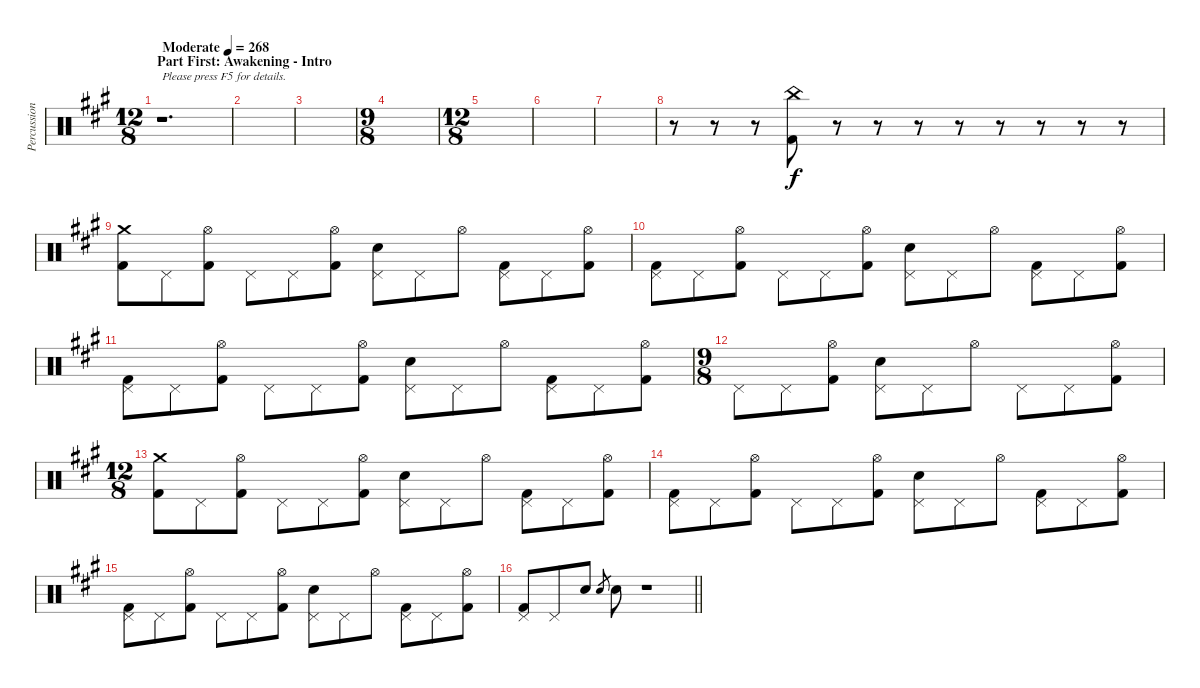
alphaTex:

\track ("Percussion" "Percussion") {instrument percussion}
\staff {score}
\articulation defaults
\ts (12 8)
\section ("" "Part First: Awakening - Intro")
\tempo (268 "Moderate")
\clef neutral
\ks a
r.1{d txt "Please press F5 for details." dy f} |
|
|
\ts (9 8)
|
\ts (12 8)
|
|
|
r.8 r.8 r.8 ("China (hit)" "Kick (hit) 2").8 r.8 r.8 r.8 r.8 r.8 r.8 r.8 r.8 |
("Crash medium (hit)" "Kick (hit) 2").8 "Pedal Hi-Hat (hit)".8 ("Hi-Hat (open)" "Kick (hit) 2").8 "Pedal Hi-Hat (hit)".8 "Pedal Hi-Hat (hit)".8 ("Hi-Hat (open)" "Kick (hit) 2").8 ("Pedal Hi-Hat (hit)" "Electric Snare (hit)").8 "Pedal Hi-Hat (hit)".8 "Hi-Hat (open)".8 ("Pedal Hi-Hat (hit)" "Kick (hit) 2").8 "Pedal Hi-Hat (hit)".8 ("Hi-Hat (open)" "Kick (hit) 2").8 |
("Pedal Hi-Hat (hit)" "Kick (hit) 2").8 "Pedal Hi-Hat (hit)".8 ("Hi-Hat (open)" "Kick (hit) 2").8 "Pedal Hi-Hat (hit)".8 "Pedal Hi-Hat (hit)".8 ("Hi-Hat (open)" "Kick (hit) 2").8 ("Pedal Hi-Hat (hit)" "Electric Snare (hit)").8 "Pedal Hi-Hat (hit)".8 "Hi-Hat (open)".8 ("Pedal Hi-Hat (hit)" "Kick (hit) 2").8 "Pedal Hi-Hat (hit)".8 ("Hi-Hat (open)" "Kick (hit) 2").8 |
("Pedal Hi-Hat (hit)" "Kick (hit) 2").8 "Pedal Hi-Hat (hit)".8 ("Hi-Hat (open)" "Kick (hit) 2").8 "Pedal Hi-Hat (hit)".8 "Pedal Hi-Hat (hit)".8 ("Hi-Hat (open)" "Kick (hit) 2").8 ("Pedal Hi-Hat (hit)" "Electric Snare (hit)").8 "Pedal Hi-Hat (hit)".8 "Hi-Hat (open)".8 ("Pedal Hi-Hat (hit)" "Kick (hit) 2").8 "Pedal Hi-Hat (hit)".8 ("Hi-Hat (open)" "Kick (hit) 2").8 |
\ts (9 8)
"Pedal Hi-Hat (hit)".8 "Pedal Hi-Hat (hit)".8 ("Hi-Hat (open)" "Kick (hit) 2").8 ("Pedal Hi-Hat (hit)" "Electric Snare (hit)").8 "Pedal Hi-Hat (hit)".8 "Hi-Hat (open)".8 "Pedal Hi-Hat (hit)".8 "Pedal Hi-Hat (hit)".8 ("Hi-Hat (open)" "Kick (hit) 2").8 |
\ts (12 8)
("Crash medium (hit)" "Kick (hit) 2").8 "Pedal Hi-Hat (hit)".8 ("Hi-Hat (open)" "Kick (hit) 2").8 "Pedal Hi-Hat (hit)".8 "Pedal Hi-Hat (hit)".8 ("Hi-Hat (open)" "Kick (hit) 2").8 ("Pedal Hi-Hat (hit)" "Electric Snare (hit)").8 "Pedal Hi-Hat (hit)".8 "Hi-Hat (open)".8 ("Pedal Hi-Hat (hit)" "Kick (hit) 2").8 "Pedal Hi-Hat (hit)".8 ("Hi-Hat (open)" "Kick (hit) 2").8 |
("Pedal Hi-Hat (hit)" "Kick (hit) 2").8 "Pedal Hi-Hat (hit)".8 ("Hi-Hat (open)" "Kick (hit) 2").8 "Pedal Hi-Hat (hit)".8 "Pedal Hi-Hat (hit)".8 ("Hi-Hat (open)" "Kick (hit) 2").8 ("Pedal Hi-Hat (hit)" "Electric Snare (hit)").8 "Pedal Hi-Hat (hit)".8 "Hi-Hat (open)".8 ("Pedal Hi-Hat (hit)" "Kick (hit) 2").8 "Pedal Hi-Hat (hit)".8 ("Hi-Hat (open)" "Kick (hit) 2").8 |
("Pedal Hi-Hat (hit)" "Kick (hit) 2").8 "Pedal Hi-Hat (hit)".8 ("Hi-Hat (open)" "Kick (hit) 2").8 "Pedal Hi-Hat (hit)".8 "Pedal Hi-Hat (hit)".8 ("Hi-Hat (open)" "Kick (hit) 2").8 ("Pedal Hi-Hat (hit)" "Electric Snare (hit)").8 "Pedal Hi-Hat (hit)".8 "Hi-Hat (open)".8 ("Pedal Hi-Hat (hit)" "Kick (hit) 2").8 "Pedal Hi-Hat (hit)".8 ("Hi-Hat (open)" "Kick (hit) 2").8 |
\barLineRight lightlight
("Pedal Hi-Hat (hit)" "Kick (hit) 2").8 "Pedal Hi-Hat (hit)".8 "Electric Snare (hit)".8 "Electric Snare (hit)".8{gr} "Electric Snare (hit)".8 r.1
